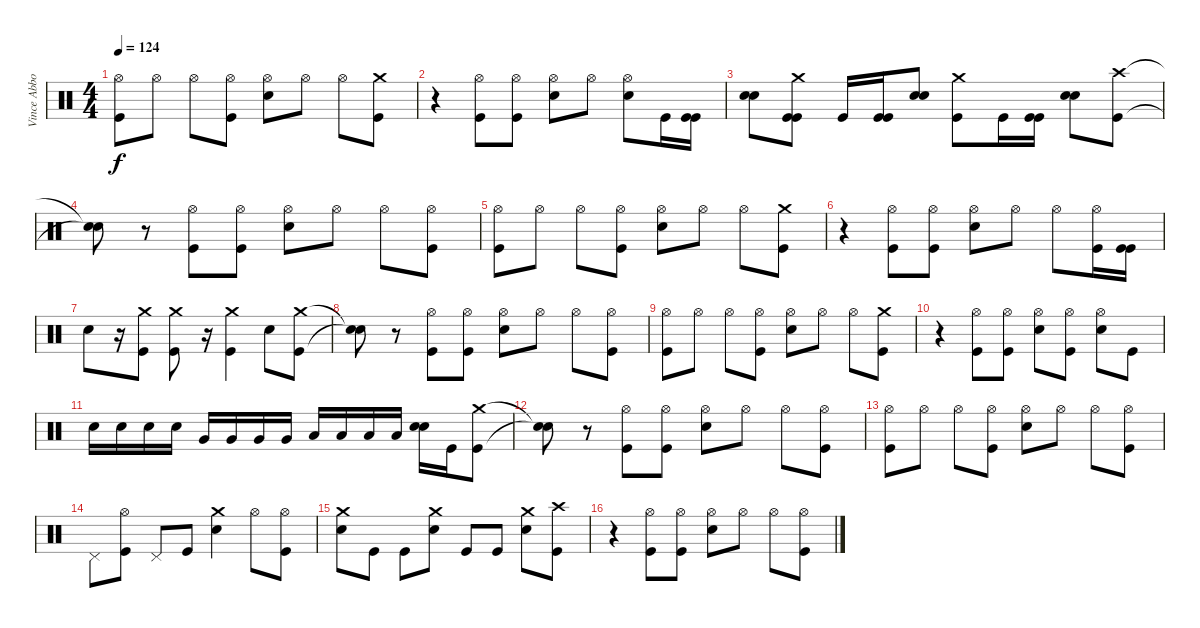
\track ("Vince Abbott (Drums)" "Vince Abbo") {instrument percussion}
\staff {score}
\articulation defaults
\ts (4 4)
\tempo 124
\clef neutral
\ks c
("Kick (hit)" "Hi-Hat (open)").8{dy f} "Hi-Hat (open)".8 "Hi-Hat (open)".8 ("Kick (hit)" "Hi-Hat (open)").8 ("Electric Snare (hit)" "Hi-Hat (open)").8 "Hi-Hat (open)".8 "Hi-Hat (open)".8 ("Kick (hit)" "Crash medium (hit)").8 |
r.4 ("Hi-Hat (open)" "Kick (hit)").8 ("Hi-Hat (open)" "Kick (hit)").8 ("Hi-Hat (open)" "Electric Snare (hit)").8 "Hi-Hat (open)".8 ("Electric Snare (hit)" "Hi-Hat (open)").8 "Kick (hit)".16 ("Kick (hit)" "Kick (hit)").16 |
("Electric Snare (hit)" "Electric Snare (hit)").8 ("Kick (hit)" "Crash medium (hit)" "Kick (hit)").8 "Kick (hit)".16 ("Kick (hit)" "Kick (hit)").16 ("Electric Snare (hit)" "Electric Snare (hit)").8 ("Kick (hit)" "Crash medium (hit)").8 "Kick (hit)".16 ("Kick (hit)" "Kick (hit)").16 ("Electric Snare (hit)" "Electric Snare (hit)").8 ("Crash high (hit)" "Kick (hit)").8 |
("Snare (hit)"{t} "Snare (hit)"{t}).8 r.8 ("Hi-Hat (open)" "Kick (hit)").8 ("Hi-Hat (open)" "Kick (hit)").8 ("Hi-Hat (open)" "Electric Snare (hit)").8 "Hi-Hat (open)".8 "Hi-Hat (open)".8 ("Hi-Hat (open)" "Kick (hit)").8 |
("Kick (hit)" "Hi-Hat (open)").8 "Hi-Hat (open)".8 "Hi-Hat (open)".8 ("Kick (hit)" "Hi-Hat (open)").8 ("Electric Snare (hit)" "Hi-Hat (open)").8 "Hi-Hat (open)".8 "Hi-Hat (open)".8 ("Kick (hit)" "Crash medium (hit)").8 |
r.4 ("Hi-Hat (open)" "Kick (hit)").8 ("Hi-Hat (open)" "Kick (hit)").8 ("Hi-Hat (open)" "Electric Snare (hit)").8 "Hi-Hat (open)".8 "Hi-Hat (open)".8 ("Kick (hit)" "Hi-Hat (open)").16 ("Kick (hit)" "Kick (hit)").16 |
"Electric Snare (hit)".8 r.16 ("Crash medium (hit)" "Kick (hit)").8 ("Crash medium (hit)" "Kick (hit)").8 r.16 ("Crash medium (hit)" "Kick (hit)").4 "Electric Snare (hit)".8 ("Crash medium (hit)" "Kick (hit)").8 |
("Snare (hit)"{t} "Snare (hit)"{t}).8 r.8 ("Hi-Hat (open)" "Kick (hit)").8 ("Hi-Hat (open)" "Kick (hit)").8 ("Hi-Hat (open)" "Electric Snare (hit)").8 "Hi-Hat (open)".8 "Hi-Hat (open)".8 ("Hi-Hat (open)" "Kick (hit)").8 |
("Kick (hit)" "Hi-Hat (open)").8 "Hi-Hat (open)".8 "Hi-Hat (open)".8 ("Kick (hit)" "Hi-Hat (open)").8 ("Electric Snare (hit)" "Hi-Hat (open)").8 "Hi-Hat (open)".8 "Hi-Hat (open)".8 ("Kick (hit)" "Crash medium (hit)").8 |
r.4 ("Hi-Hat (open)" "Kick (hit)").8 ("Hi-Hat (open)" "Kick (hit)").8 ("Hi-Hat (open)" "Electric Snare (hit)").8 ("Kick (hit)" "Hi-Hat (open)").8 ("Electric Snare (hit)" "Hi-Hat (open)").8 "Kick (hit)".8 |
"Electric Snare (hit)".16 "Electric Snare (hit)".16 "Electric Snare (hit)".16 "Electric Snare (hit)".16 "Very Low Tom (hit)".16 "Very Low Tom (hit)".16 "Very Low Tom (hit)".16 "Very Low Tom (hit)".16 "Low Floor Tom (hit)".16 "Low Floor Tom (hit)".16 "Low Floor Tom (hit)".16 "Low Floor Tom (hit)".16 ("Electric Snare (hit)" "Electric Snare (hit)").16 "Kick (hit)".16 ("Kick (hit)" "Crash medium (hit)").8 |
("Snare (hit)"{t} "Snare (hit)"{t}).8 r.8 ("Hi-Hat (open)" "Kick (hit)").8 ("Hi-Hat (open)" "Kick (hit)").8 ("Hi-Hat (open)" "Electric Snare (hit)").8 "Hi-Hat (open)".8 "Hi-Hat (open)".8 ("Hi-Hat (open)" "Kick (hit)").8 |
("Kick (hit)" "Hi-Hat (open)").8 "Hi-Hat (open)".8 "Hi-Hat (open)".8 ("Hi-Hat (open)" "Kick (hit)").8 ("Electric Snare (hit)" "Hi-Hat (open)").8 "Hi-Hat (open)".8 "Hi-Hat (open)".8 ("Hi-Hat (open)" "Kick (hit)").8 |
"Pedal Hi-Hat (hit)".8 ("Hi-Hat (open)" "Kick (hit)").8 "Pedal Hi-Hat (hit)".8 "Kick (hit)".8 ("Electric Snare (hit)" "Crash medium (hit)").4 "Hi-Hat (open)".8 ("Hi-Hat (open)" "Kick (hit)").8 |
("Crash medium (hit)" "Electric Snare (hit)").8 "Kick (hit)".8 "Kick (hit)".8 ("Crash medium (hit)" "Electric Snare (hit)").8 "Kick (hit)".8 "Kick (hit)".8 ("Crash medium (hit)" "Electric Snare (hit)").8 ("Crash high (hit)" "Kick (hit)").8 |
r.4 ("Hi-Hat (open)" "Kick (hit)").8 ("Hi-Hat (open)" "Kick (hit)").8 ("Hi-Hat (open)" "Electric Snare (hit)").8 "Hi-Hat (open)".8 "Hi-Hat (open)".8 ("Hi-Hat (open)" "Kick (hit)").8
